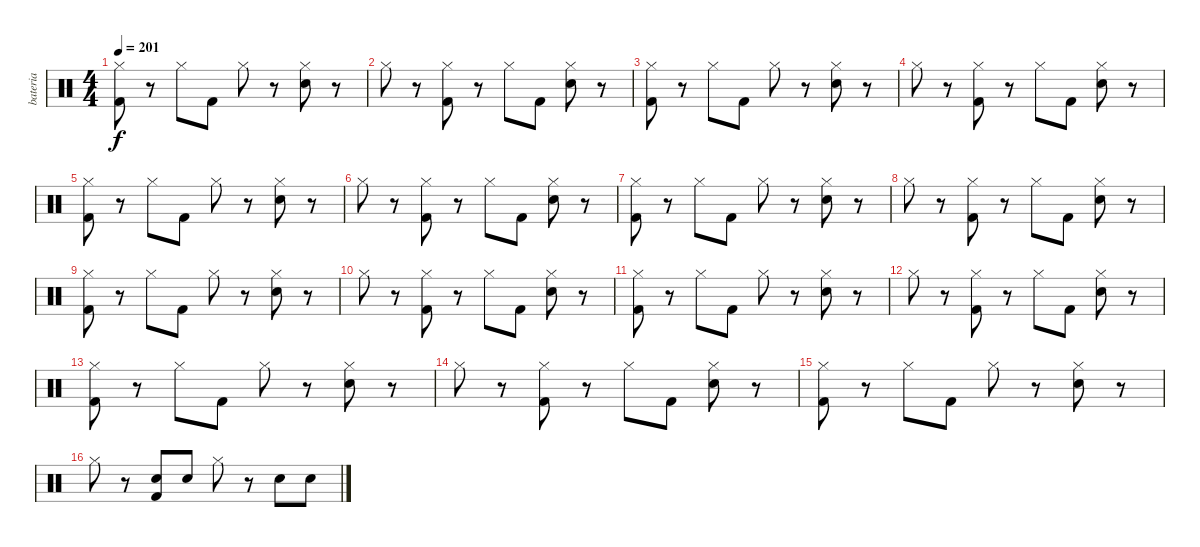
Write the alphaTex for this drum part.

\track ("bateria" "bateria") {instrument percussion}
\staff {score}
\articulation defaults
\ts (4 4)
\tempo 201
\clef neutral
\ks c
("Hi-Hat (closed)" "Kick (hit) 2").8{dy f} r.8 "Hi-Hat (closed)".8 "Kick (hit) 2".8 "Hi-Hat (closed)".8 r.8 ("Hi-Hat (closed)" "Electric Snare (hit)").8 r.8 |
"Hi-Hat (closed)".8 r.8 ("Hi-Hat (closed)" "Kick (hit) 2").8 r.8 "Hi-Hat (closed)".8 "Kick (hit) 2".8 ("Hi-Hat (closed)" "Electric Snare (hit)").8 r.8 |
("Hi-Hat (closed)" "Kick (hit) 2").8 r.8 "Hi-Hat (closed)".8 "Kick (hit) 2".8 "Hi-Hat (closed)".8 r.8 ("Hi-Hat (closed)" "Electric Snare (hit)").8 r.8 |
"Hi-Hat (closed)".8 r.8 ("Hi-Hat (closed)" "Kick (hit) 2").8 r.8 "Hi-Hat (closed)".8 "Kick (hit) 2".8 ("Hi-Hat (closed)" "Electric Snare (hit)").8 r.8 |
("Hi-Hat (closed)" "Kick (hit) 2").8 r.8 "Hi-Hat (closed)".8 "Kick (hit) 2".8 "Hi-Hat (closed)".8 r.8 ("Hi-Hat (closed)" "Electric Snare (hit)").8 r.8 |
"Hi-Hat (closed)".8 r.8 ("Hi-Hat (closed)" "Kick (hit) 2").8 r.8 "Hi-Hat (closed)".8 "Kick (hit) 2".8 ("Hi-Hat (closed)" "Electric Snare (hit)").8 r.8 |
("Hi-Hat (closed)" "Kick (hit) 2").8 r.8 "Hi-Hat (closed)".8 "Kick (hit) 2".8 "Hi-Hat (closed)".8 r.8 ("Hi-Hat (closed)" "Electric Snare (hit)").8 r.8 |
"Hi-Hat (closed)".8 r.8 ("Hi-Hat (closed)" "Kick (hit) 2").8 r.8 "Hi-Hat (closed)".8 "Kick (hit) 2".8 ("Hi-Hat (closed)" "Electric Snare (hit)").8 r.8 |
("Hi-Hat (closed)" "Kick (hit) 2").8 r.8 "Hi-Hat (closed)".8 "Kick (hit) 2".8 "Hi-Hat (closed)".8 r.8 ("Hi-Hat (closed)" "Electric Snare (hit)").8 r.8 |
"Hi-Hat (closed)".8 r.8 ("Hi-Hat (closed)" "Kick (hit) 2").8 r.8 "Hi-Hat (closed)".8 "Kick (hit) 2".8 ("Hi-Hat (closed)" "Electric Snare (hit)").8 r.8 |
("Hi-Hat (closed)" "Kick (hit) 2").8 r.8 "Hi-Hat (closed)".8 "Kick (hit) 2".8 "Hi-Hat (closed)".8 r.8 ("Hi-Hat (closed)" "Electric Snare (hit)").8 r.8 |
"Hi-Hat (closed)".8 r.8 ("Hi-Hat (closed)" "Kick (hit) 2").8 r.8 "Hi-Hat (closed)".8 "Kick (hit) 2".8 ("Hi-Hat (closed)" "Electric Snare (hit)").8 r.8 |
("Hi-Hat (closed)" "Kick (hit) 2").8 r.8 "Hi-Hat (closed)".8 "Kick (hit) 2".8 "Hi-Hat (closed)".8 r.8 ("Hi-Hat (closed)" "Electric Snare (hit)").8 r.8 |
"Hi-Hat (closed)".8 r.8 ("Hi-Hat (closed)" "Kick (hit) 2").8 r.8 "Hi-Hat (closed)".8 "Kick (hit) 2".8 ("Hi-Hat (closed)" "Electric Snare (hit)").8 r.8 |
("Hi-Hat (closed)" "Kick (hit) 2").8 r.8 "Hi-Hat (closed)".8 "Kick (hit) 2".8 "Hi-Hat (closed)".8 r.8 ("Hi-Hat (closed)" "Electric Snare (hit)").8 r.8 |
"Hi-Hat (closed)".8 r.8 ("Electric Snare (hit)" "Kick (hit) 2").8 "Electric Snare (hit)".8 "Hi-Hat (closed)".8 r.8 "Electric Snare (hit)".8 "Electric Snare (hit)".8
